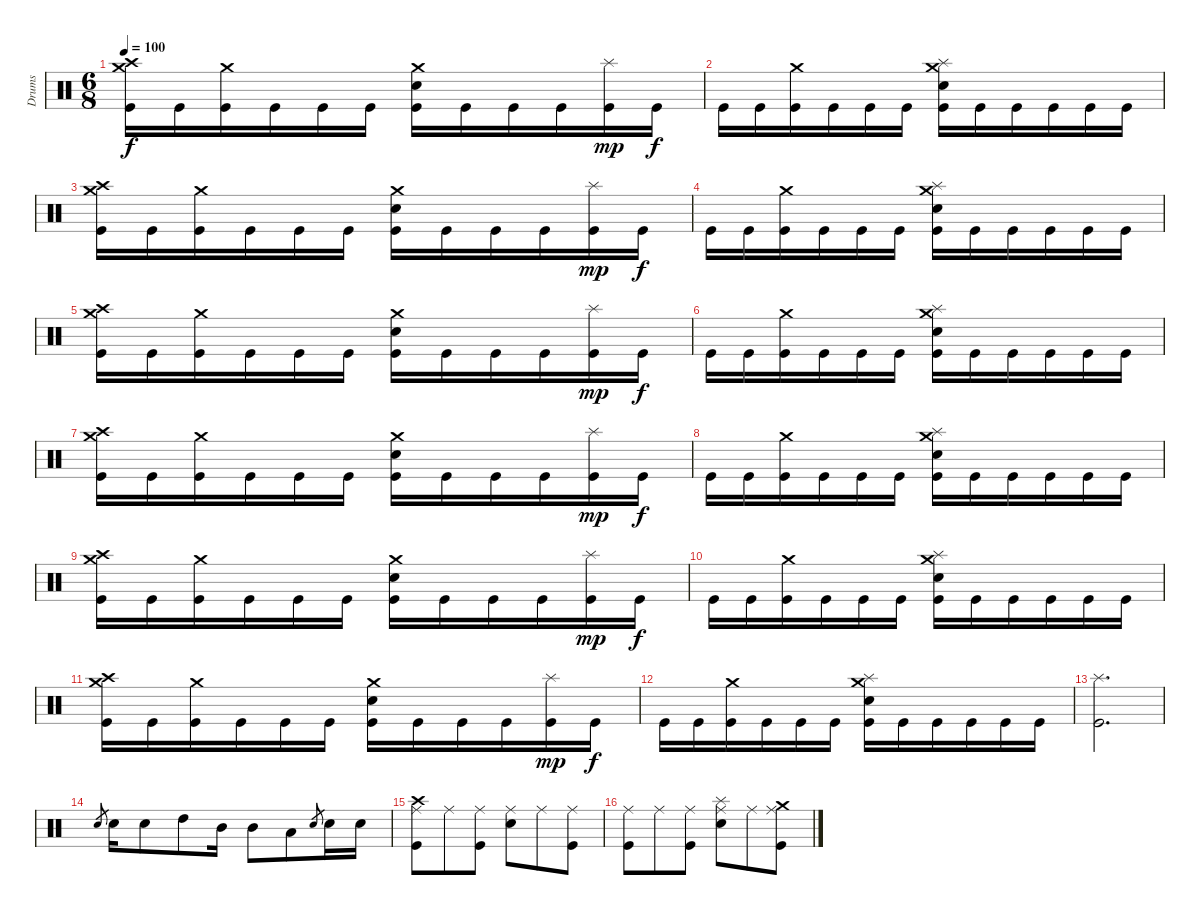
\track ("Drums" "Drums") {instrument percussion}
\staff {score}
\articulation defaults
\ts (6 8)
\tempo 100
\clef neutral
\ks c
("Crash high (hit)" "Crash medium (hit)" "Kick (hit)").16{dy f} "Kick (hit)".16 ("Crash medium (hit)" "Kick (hit)").16 "Kick (hit)".16 "Kick (hit)".16 "Kick (hit)".16 ("Crash medium (hit)" "Electric Snare (hit)" "Kick (hit)").16 "Kick (hit)".16 "Kick (hit)".16 "Kick (hit)".16 ("Splash (hit)" "Kick (hit)").16{dy mp} "Kick (hit)".16{dy f} |
"Kick (hit)".16 "Kick (hit)".16 ("Crash medium (hit)" "Kick (hit)").16 "Kick (hit)".16 "Kick (hit)".16 "Kick (hit)".16 ("Splash (hit)" "Crash medium (hit)" "Electric Snare (hit)" "Kick (hit)").16 "Kick (hit)".16 "Kick (hit)".16 "Kick (hit)".16 "Kick (hit)".16 "Kick (hit)".16 |
("Crash high (hit)" "Crash medium (hit)" "Kick (hit)").16 "Kick (hit)".16 ("Crash medium (hit)" "Kick (hit)").16 "Kick (hit)".16 "Kick (hit)".16 "Kick (hit)".16 ("Crash medium (hit)" "Electric Snare (hit)" "Kick (hit)").16 "Kick (hit)".16 "Kick (hit)".16 "Kick (hit)".16 ("Splash (hit)" "Kick (hit)").16{dy mp} "Kick (hit)".16{dy f} |
"Kick (hit)".16 "Kick (hit)".16 ("Crash medium (hit)" "Kick (hit)").16 "Kick (hit)".16 "Kick (hit)".16 "Kick (hit)".16 ("Splash (hit)" "Crash medium (hit)" "Electric Snare (hit)" "Kick (hit)").16 "Kick (hit)".16 "Kick (hit)".16 "Kick (hit)".16 "Kick (hit)".16 "Kick (hit)".16 |
("Crash high (hit)" "Crash medium (hit)" "Kick (hit)").16 "Kick (hit)".16 ("Crash medium (hit)" "Kick (hit)").16 "Kick (hit)".16 "Kick (hit)".16 "Kick (hit)".16 ("Crash medium (hit)" "Electric Snare (hit)" "Kick (hit)").16 "Kick (hit)".16 "Kick (hit)".16 "Kick (hit)".16 ("Splash (hit)" "Kick (hit)").16{dy mp} "Kick (hit)".16{dy f} |
"Kick (hit)".16 "Kick (hit)".16 ("Crash medium (hit)" "Kick (hit)").16 "Kick (hit)".16 "Kick (hit)".16 "Kick (hit)".16 ("Splash (hit)" "Crash medium (hit)" "Electric Snare (hit)" "Kick (hit)").16 "Kick (hit)".16 "Kick (hit)".16 "Kick (hit)".16 "Kick (hit)".16 "Kick (hit)".16 |
("Crash high (hit)" "Crash medium (hit)" "Kick (hit)").16 "Kick (hit)".16 ("Crash medium (hit)" "Kick (hit)").16 "Kick (hit)".16 "Kick (hit)".16 "Kick (hit)".16 ("Crash medium (hit)" "Electric Snare (hit)" "Kick (hit)").16 "Kick (hit)".16 "Kick (hit)".16 "Kick (hit)".16 ("Splash (hit)" "Kick (hit)").16{dy mp} "Kick (hit)".16{dy f} |
"Kick (hit)".16 "Kick (hit)".16 ("Crash medium (hit)" "Kick (hit)").16 "Kick (hit)".16 "Kick (hit)".16 "Kick (hit)".16 ("Splash (hit)" "Crash medium (hit)" "Electric Snare (hit)" "Kick (hit)").16 "Kick (hit)".16 "Kick (hit)".16 "Kick (hit)".16 "Kick (hit)".16 "Kick (hit)".16 |
("Crash high (hit)" "Crash medium (hit)" "Kick (hit)").16 "Kick (hit)".16 ("Crash medium (hit)" "Kick (hit)").16 "Kick (hit)".16 "Kick (hit)".16 "Kick (hit)".16 ("Crash medium (hit)" "Electric Snare (hit)" "Kick (hit)").16 "Kick (hit)".16 "Kick (hit)".16 "Kick (hit)".16 ("Splash (hit)" "Kick (hit)").16{dy mp} "Kick (hit)".16{dy f} |
"Kick (hit)".16 "Kick (hit)".16 ("Crash medium (hit)" "Kick (hit)").16 "Kick (hit)".16 "Kick (hit)".16 "Kick (hit)".16 ("Splash (hit)" "Crash medium (hit)" "Electric Snare (hit)" "Kick (hit)").16 "Kick (hit)".16 "Kick (hit)".16 "Kick (hit)".16 "Kick (hit)".16 "Kick (hit)".16 |
("Crash high (hit)" "Crash medium (hit)" "Kick (hit)").16 "Kick (hit)".16 ("Crash medium (hit)" "Kick (hit)").16 "Kick (hit)".16 "Kick (hit)".16 "Kick (hit)".16 ("Crash medium (hit)" "Electric Snare (hit)" "Kick (hit)").16 "Kick (hit)".16 "Kick (hit)".16 "Kick (hit)".16 ("Splash (hit)" "Kick (hit)").16{dy mp} "Kick (hit)".16{dy f} |
"Kick (hit)".16 "Kick (hit)".16 ("Crash medium (hit)" "Kick (hit)").16 "Kick (hit)".16 "Kick (hit)".16 "Kick (hit)".16 ("Splash (hit)" "Crash medium (hit)" "Electric Snare (hit)" "Kick (hit)").16 "Kick (hit)".16 "Kick (hit)".16 "Kick (hit)".16 "Kick (hit)".16 "Kick (hit)".16 |
("Splash (hit)" "Kick (hit)").2{d} |
"Electric Snare (hit)".8{gr} "Electric Snare (hit)".16 "Electric Snare (hit)".8 "High Tom (hit)".8 "Mid Tom (hit)".16 "Mid Tom (hit)".8 "Low Tom (hit)".8 "Electric Snare (hit)".8{gr} "Electric Snare (hit)".16 "Electric Snare (hit)".16 |
("Crash high (hit)" "Ride (middle)" "Kick (hit)").8 "Ride (middle)".8 ("Ride (middle)" "Kick (hit)").8 ("Ride (middle)" "Electric Snare (hit)").8 "Ride (middle)".8 ("Ride (middle)" "Kick (hit)").8 |
("Ride (middle)" "Kick (hit)").8 "Ride (middle)".8 ("Ride (middle)" "Kick (hit)").8 ("Splash (hit)" "Ride (middle)" "Electric Snare (hit)").8 "Ride (middle)".8 ("Crash medium (hit)" "Ride (middle)" "Kick (hit)").8
